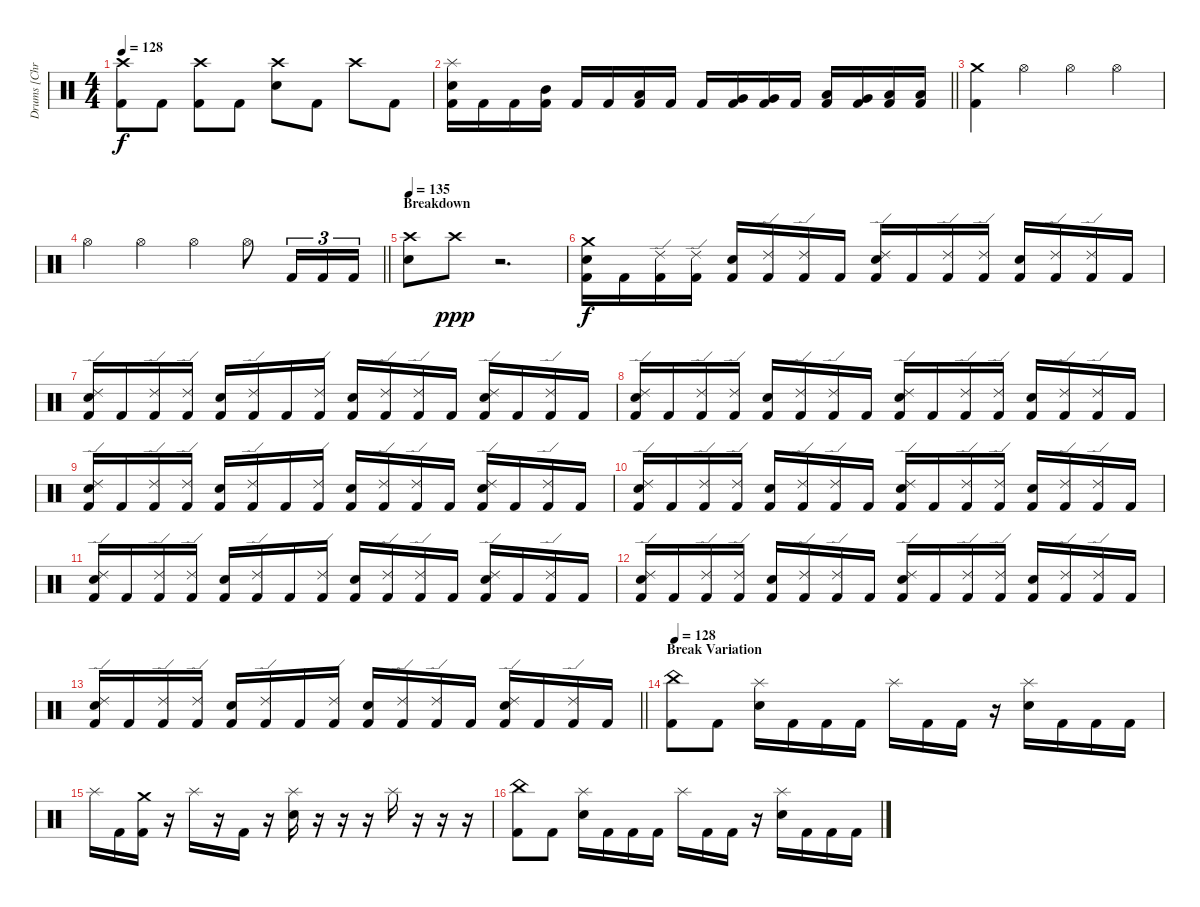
\track ("Drums [Chris Adler]" "Drums [Chr") {instrument percussion}
\staff {score}
\articulation defaults
\ts (4 4)
\tempo 128
\clef neutral
\ks c
("Crash high (hit)" "Kick (hit) 2").8{dy f} "Kick (hit) 2".8 ("Crash high (hit)" "Kick (hit) 2").8 "Kick (hit) 2".8 ("Crash high (hit)" "Snare (hit) 2").8 "Kick (hit) 2".8 "Crash high (hit)".8 "Kick (hit) 2".8 |
\barLineRight lightlight
("Splash (hit)" "Snare (hit) 2" "Kick (hit) 2").16 "Kick (hit) 2".16 "Kick (hit) 2".16 ("Mid Tom (hit)" "Kick (hit) 2").16 "Kick (hit) 2".16 "Kick (hit) 2".16 ("Low Tom (hit)" "Kick (hit) 2").16 "Kick (hit) 2".16 "Kick (hit) 2".16 ("Very Low Tom (hit)" "Kick (hit) 2").16 ("Very Low Tom (hit)" "Kick (hit) 2").16 "Kick (hit) 2".16 ("Low Floor Tom (hit)" "Kick (hit) 2").16 ("Very Low Tom (hit)" "Kick (hit) 2").16 ("Low Floor Tom (hit)" "Kick (hit) 2").16 ("Low Floor Tom (hit)" "Kick (hit) 2").16 |
("Crash medium (hit)" "Kick (hit) 2").4 "Hi-Hat (open)".4 "Hi-Hat (open)".4 "Hi-Hat (open)".4 |
\barLineRight lightlight "Hi-Hat (open)".4 "Hi-Hat (open)".4 "Hi-Hat (open)".4 "Hi-Hat (open)".8 "Kick (hit) 2".16{tu (3 2)} "Kick (hit) 2".16{tu (3 2)} "Kick (hit) 2".16{tu (3 2)}
|
\section ("" "Breakdown")
\tempo 135
("Crash high (hit)" "Snare (hit) 2").8 "Crash high (hit)".8{dy ppp} r.2{d} |
("Crash medium (hit)" "Snare (hit) 2" "Kick (hit) 2").16{dy f} "Kick (hit) 2".16 ("Ride (edge) 2" "Kick (hit) 2").16 ("Ride (edge) 2" "Kick (hit) 2").16 ("Snare (hit) 2" "Kick (hit) 2").16 ("Ride (edge) 2" "Kick (hit) 2").16 ("Ride (edge) 2" "Kick (hit) 2").16 "Kick (hit) 2".16 ("Ride (edge) 2" "Snare (hit) 2" "Kick (hit) 2").16 "Kick (hit) 2".16 ("Ride (edge) 2" "Kick (hit) 2").16 ("Ride (edge) 2" "Kick (hit) 2").16 ("Snare (hit) 2" "Kick (hit) 2").16 ("Ride (edge) 2" "Kick (hit) 2").16 ("Ride (edge) 2" "Kick (hit) 2").16 "Kick (hit) 2".16 |
("Ride (edge) 2" "Snare (hit) 2" "Kick (hit) 2").16 "Kick (hit) 2".16 ("Ride (edge) 2" "Kick (hit) 2").16 ("Ride (edge) 2" "Kick (hit) 2").16 ("Snare (hit) 2" "Kick (hit) 2").16 ("Ride (edge) 2" "Kick (hit) 2").16 "Kick (hit) 2".16 ("Ride (edge) 2" "Kick (hit) 2").16 ("Snare (hit) 2" "Kick (hit) 2").16 ("Ride (edge) 2" "Kick (hit) 2").16 ("Ride (edge) 2" "Kick (hit) 2").16 "Kick (hit) 2".16 ("Ride (edge) 2" "Snare (hit) 2" "Kick (hit) 2").16 "Kick (hit) 2".16 ("Ride (edge) 2" "Kick (hit) 2").16 "Kick (hit) 2".16 |
("Ride (edge) 2" "Snare (hit) 2" "Kick (hit) 2").16 "Kick (hit) 2".16 ("Ride (edge) 2" "Kick (hit) 2").16 ("Ride (edge) 2" "Kick (hit) 2").16 ("Snare (hit) 2" "Kick (hit) 2").16 ("Ride (edge) 2" "Kick (hit) 2").16 ("Ride (edge) 2" "Kick (hit) 2").16 "Kick (hit) 2".16 ("Ride (edge) 2" "Snare (hit) 2" "Kick (hit) 2").16 "Kick (hit) 2".16 ("Ride (edge) 2" "Kick (hit) 2").16 ("Ride (edge) 2" "Kick (hit) 2").16 ("Snare (hit) 2" "Kick (hit) 2").16 ("Ride (edge) 2" "Kick (hit) 2").16 ("Ride (edge) 2" "Kick (hit) 2").16 "Kick (hit) 2".16 |
("Ride (edge) 2" "Snare (hit) 2" "Kick (hit) 2").16 "Kick (hit) 2".16 ("Ride (edge) 2" "Kick (hit) 2").16 ("Ride (edge) 2" "Kick (hit) 2").16 ("Snare (hit) 2" "Kick (hit) 2").16 ("Ride (edge) 2" "Kick (hit) 2").16 "Kick (hit) 2".16 ("Ride (edge) 2" "Kick (hit) 2").16 ("Snare (hit) 2" "Kick (hit) 2").16 ("Ride (edge) 2" "Kick (hit) 2").16 ("Ride (edge) 2" "Kick (hit) 2").16 "Kick (hit) 2".16 ("Ride (edge) 2" "Snare (hit) 2" "Kick (hit) 2").16 "Kick (hit) 2".16 ("Ride (edge) 2" "Kick (hit) 2").16 "Kick (hit) 2".16 |
("Ride (edge) 2" "Snare (hit) 2" "Kick (hit) 2").16 "Kick (hit) 2".16 ("Ride (edge) 2" "Kick (hit) 2").16 ("Ride (edge) 2" "Kick (hit) 2").16 ("Snare (hit) 2" "Kick (hit) 2").16 ("Ride (edge) 2" "Kick (hit) 2").16 ("Ride (edge) 2" "Kick (hit) 2").16 "Kick (hit) 2".16 ("Ride (edge) 2" "Snare (hit) 2" "Kick (hit) 2").16 "Kick (hit) 2".16 ("Ride (edge) 2" "Kick (hit) 2").16 ("Ride (edge) 2" "Kick (hit) 2").16 ("Snare (hit) 2" "Kick (hit) 2").16 ("Ride (edge) 2" "Kick (hit) 2").16 ("Ride (edge) 2" "Kick (hit) 2").16 "Kick (hit) 2".16 |
("Ride (edge) 2" "Snare (hit) 2" "Kick (hit) 2").16 "Kick (hit) 2".16 ("Ride (edge) 2" "Kick (hit) 2").16 ("Ride (edge) 2" "Kick (hit) 2").16 ("Snare (hit) 2" "Kick (hit) 2").16 ("Ride (edge) 2" "Kick (hit) 2").16 "Kick (hit) 2".16 ("Ride (edge) 2" "Kick (hit) 2").16 ("Snare (hit) 2" "Kick (hit) 2").16 ("Ride (edge) 2" "Kick (hit) 2").16 ("Ride (edge) 2" "Kick (hit) 2").16 "Kick (hit) 2".16 ("Ride (edge) 2" "Snare (hit) 2" "Kick (hit) 2").16 "Kick (hit) 2".16 ("Ride (edge) 2" "Kick (hit) 2").16 "Kick (hit) 2".16 |
("Ride (edge) 2" "Snare (hit) 2" "Kick (hit) 2").16 "Kick (hit) 2".16 ("Ride (edge) 2" "Kick (hit) 2").16 ("Ride (edge) 2" "Kick (hit) 2").16 ("Snare (hit) 2" "Kick (hit) 2").16 ("Ride (edge) 2" "Kick (hit) 2").16 ("Ride (edge) 2" "Kick (hit) 2").16 "Kick (hit) 2".16 ("Ride (edge) 2" "Snare (hit) 2" "Kick (hit) 2").16 "Kick (hit) 2".16 ("Ride (edge) 2" "Kick (hit) 2").16 ("Ride (edge) 2" "Kick (hit) 2").16 ("Snare (hit) 2" "Kick (hit) 2").16 ("Ride (edge) 2" "Kick (hit) 2").16 ("Ride (edge) 2" "Kick (hit) 2").16 "Kick (hit) 2".16 |
\barLineRight lightlight
("Ride (edge) 2" "Snare (hit) 2" "Kick (hit) 2").16 "Kick (hit) 2".16 ("Ride (edge) 2" "Kick (hit) 2").16 ("Ride (edge) 2" "Kick (hit) 2").16 ("Snare (hit) 2" "Kick (hit) 2").16 ("Ride (edge) 2" "Kick (hit) 2").16 "Kick (hit) 2".16 ("Ride (edge) 2" "Kick (hit) 2").16 ("Snare (hit) 2" "Kick (hit) 2").16 ("Ride (edge) 2" "Kick (hit) 2").16 ("Ride (edge) 2" "Kick (hit) 2").16 "Kick (hit) 2".16 ("Ride (edge) 2" "Snare (hit) 2" "Kick (hit) 2").16 "Kick (hit) 2".16 ("Ride (edge) 2" "Kick (hit) 2").16 "Kick (hit) 2".16 |
\section ("" "Break Variation")
\tempo 128
("China (hit)" "Kick (hit) 2").8 "Kick (hit) 2".8 ("Splash (hit)" "Snare (hit) 2").16 "Kick (hit) 2".16 "Kick (hit) 2".16 "Kick (hit) 2".16 "Splash (hit)".16 "Kick (hit) 2".16 "Kick (hit) 2".16 r.16 ("Splash (hit)" "Snare (hit) 2").16 "Kick (hit) 2".16 "Kick (hit) 2".16 "Kick (hit) 2".16 |
"Splash (hit)".16 "Kick (hit) 2".16 ("Crash medium (hit)" "Kick (hit) 2").16 r.16 "Splash (hit)".16 r.16 "Kick (hit) 2".16 r.16 ("Splash (hit)" "Snare (hit) 2").16 r.16 r.16 r.16 "Splash (hit)".16 r.16 r.16 r.16 |
("China (hit)" "Kick (hit) 2").8 "Kick (hit) 2".8 ("Splash (hit)" "Snare (hit) 2").16 "Kick (hit) 2".16 "Kick (hit) 2".16 "Kick (hit) 2".16 "Splash (hit)".16 "Kick (hit) 2".16 "Kick (hit) 2".16 r.16 ("Splash (hit)" "Snare (hit) 2").16 "Kick (hit) 2".16 "Kick (hit) 2".16 "Kick (hit) 2".16
